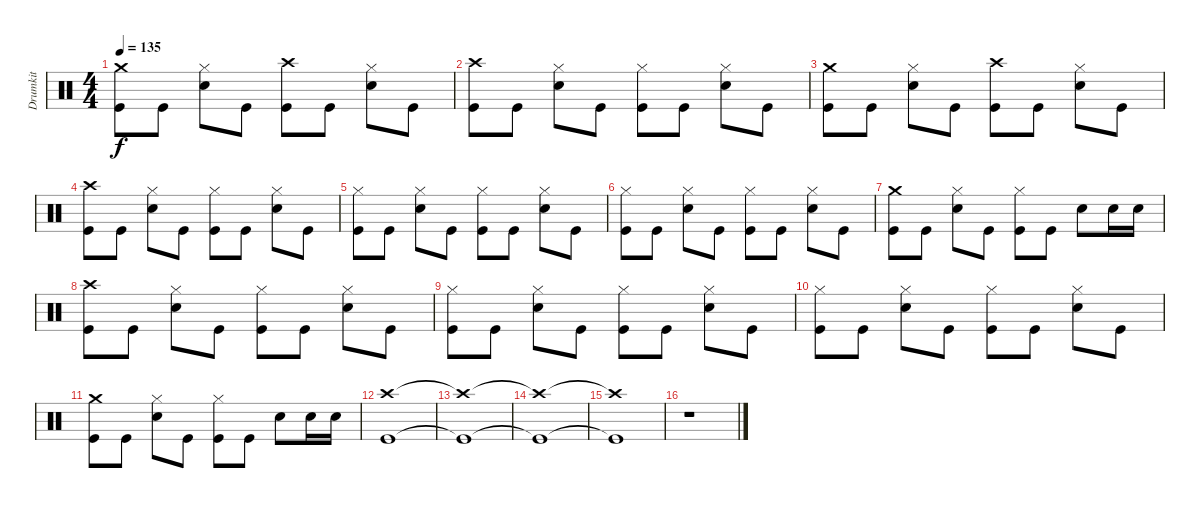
\track ("Drumkit" "Drumkit") {instrument percussion}
\staff {score}
\articulation defaults
\ts (4 4)
\tempo 135
\clef neutral
\ks c
("Crash medium (hit)" "Kick (hit)").8{dy f} "Kick (hit)".8 ("Hi-Hat (closed)" "Snare (hit) 2").8 "Kick (hit)".8 ("Crash high (hit)" "Kick (hit)").8 "Kick (hit)".8 ("Hi-Hat (closed)" "Snare (hit) 2").8 "Kick (hit)".8 |
("Crash high (hit)" "Kick (hit)").8 "Kick (hit)".8 ("Hi-Hat (closed)" "Snare (hit) 2").8 "Kick (hit)".8 ("Hi-Hat (closed)" "Kick (hit)").8 "Kick (hit)".8 ("Hi-Hat (closed)" "Snare (hit) 2").8 "Kick (hit)".8 |
("Crash medium (hit)" "Kick (hit)").8 "Kick (hit)".8 ("Hi-Hat (closed)" "Snare (hit) 2").8 "Kick (hit)".8 ("Crash high (hit)" "Kick (hit)").8 "Kick (hit)".8 ("Hi-Hat (closed)" "Snare (hit) 2").8 "Kick (hit)".8 |
("Crash high (hit)" "Kick (hit)").8 "Kick (hit)".8 ("Hi-Hat (closed)" "Snare (hit) 2").8 "Kick (hit)".8 ("Hi-Hat (closed)" "Kick (hit)").8 "Kick (hit)".8 ("Hi-Hat (closed)" "Snare (hit) 2").8 "Kick (hit)".8 |
("Hi-Hat (closed)" "Kick (hit)").8 "Kick (hit)".8 ("Hi-Hat (closed)" "Snare (hit) 2").8 "Kick (hit)".8 ("Hi-Hat (closed)" "Kick (hit)").8 "Kick (hit)".8 ("Hi-Hat (closed)" "Snare (hit) 2").8 "Kick (hit)".8 |
("Hi-Hat (closed)" "Kick (hit)").8 "Kick (hit)".8 ("Hi-Hat (closed)" "Snare (hit) 2").8 "Kick (hit)".8 ("Hi-Hat (closed)" "Kick (hit)").8 "Kick (hit)".8 ("Hi-Hat (closed)" "Snare (hit) 2").8 "Kick (hit)".8 |
("Crash medium (hit)" "Kick (hit)").8 "Kick (hit)".8 ("Hi-Hat (closed)" "Snare (hit) 2").8 "Kick (hit)".8 ("Hi-Hat (closed)" "Kick (hit)").8 "Kick (hit)".8 "Snare (hit) 2".8 "Snare (hit) 2".16 "Snare (hit) 2".16 |
("Crash high (hit)" "Kick (hit)").8 "Kick (hit)".8 ("Hi-Hat (closed)" "Snare (hit) 2").8 "Kick (hit)".8 ("Hi-Hat (closed)" "Kick (hit)").8 "Kick (hit)".8 ("Hi-Hat (closed)" "Snare (hit) 2").8 "Kick (hit)".8 |
("Hi-Hat (closed)" "Kick (hit)").8 "Kick (hit)".8 ("Hi-Hat (closed)" "Snare (hit) 2").8 "Kick (hit)".8 ("Hi-Hat (closed)" "Kick (hit)").8 "Kick (hit)".8 ("Hi-Hat (closed)" "Snare (hit) 2").8 "Kick (hit)".8 |
("Hi-Hat (closed)" "Kick (hit)").8 "Kick (hit)".8 ("Hi-Hat (closed)" "Snare (hit) 2").8 "Kick (hit)".8 ("Hi-Hat (closed)" "Kick (hit)").8 "Kick (hit)".8 ("Hi-Hat (closed)" "Snare (hit) 2").8 "Kick (hit)".8 |
("Crash medium (hit)" "Kick (hit)").8 "Kick (hit)".8 ("Hi-Hat (closed)" "Snare (hit) 2").8 "Kick (hit)".8 ("Hi-Hat (closed)" "Kick (hit)").8 "Kick (hit)".8 "Snare (hit) 2".8 "Snare (hit) 2".16 "Snare (hit) 2".16 |
("Crash high (hit)" "Kick (hit)").1 |
("Crash high (hit)"{t} "Kick (hit)"{t}).1 |
("Crash high (hit)"{t} "Kick (hit)"{t}).1 |
("Crash high (hit)"{t} "Kick (hit)"{t}).1 |
r.1
